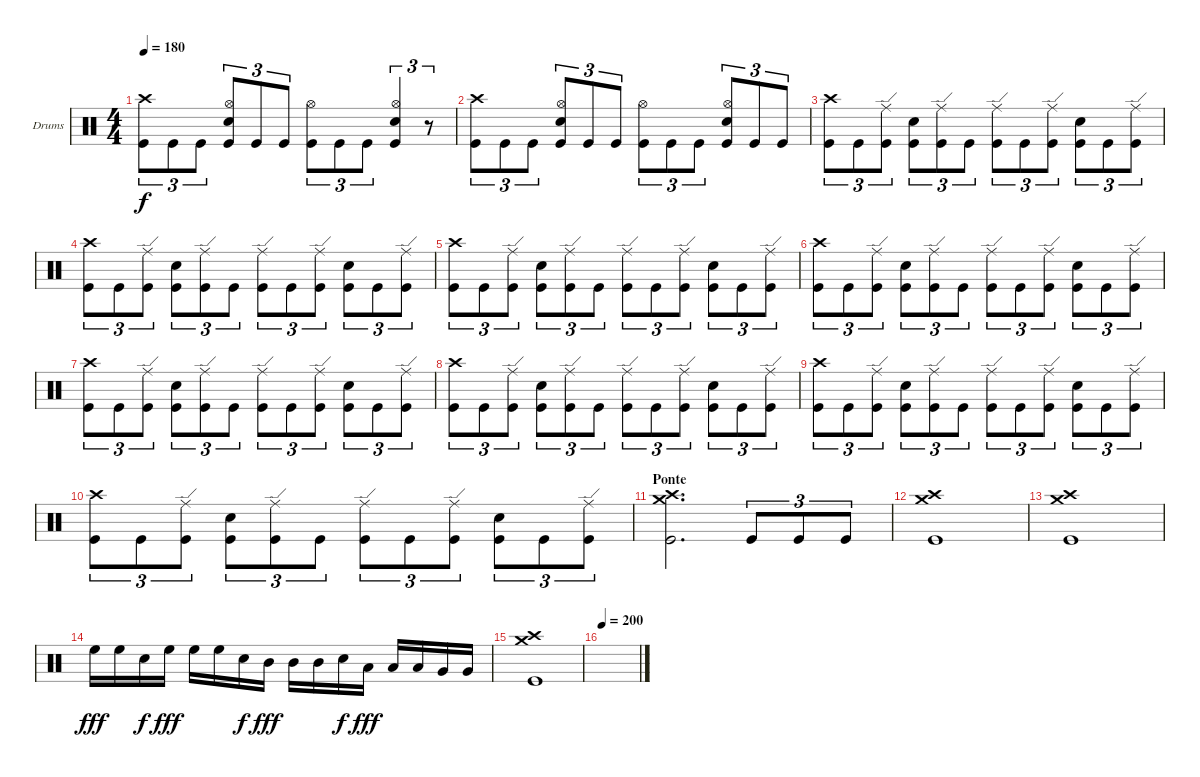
\defaultSystemsLayout 4
\bracketExtendMode groupsimilarinstruments
\firstSystemTrackNameOrientation horizontal
\otherSystemsTrackNameOrientation horizontal
\track ("Drumkit" "Drums") {instrument percussion}
\staff {score}
\articulation defaults
\ts (4 4)
\tempo 180
\clef neutral
\ks c
("Kick (hit)" "Crash high (hit)").8{tu (3 2) dy f} "Kick (hit)".8{tu (3 2)} "Kick (hit)".8{tu (3 2)} ("Hi-Hat (open)" "Snare (hit) 2" "Kick (hit)").8{tu (3 2)} "Kick (hit)".8{tu (3 2)} "Kick (hit)".8{tu (3 2)} ("Hi-Hat (open)" "Kick (hit)").8{tu (3 2)} "Kick (hit)".8{tu (3 2)} "Kick (hit)".8{tu (3 2)} ("Hi-Hat (open)" "Snare (hit) 2" "Kick (hit)").4{tu (3 2)} r.8{tu (3 2)} |
("Kick (hit)" "Crash high (hit)").8{tu (3 2)} "Kick (hit)".8{tu (3 2)} "Kick (hit)".8{tu (3 2)} ("Hi-Hat (open)" "Snare (hit) 2" "Kick (hit)").8{tu (3 2)} "Kick (hit)".8{tu (3 2)} "Kick (hit)".8{tu (3 2)} ("Hi-Hat (open)" "Kick (hit)").8{tu (3 2)} "Kick (hit)".8{tu (3 2)} "Kick (hit)".8{tu (3 2)} ("Hi-Hat (open)" "Snare (hit) 2" "Kick (hit)").8{tu (3 2)} "Kick (hit)".8{tu (3 2)} "Kick (hit)".8{tu (3 2)} |
("Crash high (hit)" "Kick (hit)").8{tu (3 2)} "Kick (hit)".8{tu (3 2)} ("Ride (edge)" "Kick (hit)").8{tu (3 2)} ("Snare (hit) 2" "Kick (hit)").8{tu (3 2)} ("Ride (edge)" "Kick (hit)").8{tu (3 2)} "Kick (hit)".8{tu (3 2)} ("Ride (edge)" "Kick (hit)").8{tu (3 2)} "Kick (hit)".8{tu (3 2)} ("Ride (edge)" "Kick (hit)").8{tu (3 2)} ("Snare (hit) 2" "Kick (hit)").8{tu (3 2)} "Kick (hit)".8{tu (3 2)} ("Ride (edge)" "Kick (hit)").8{tu (3 2)} |
("Crash high (hit)" "Kick (hit)").8{tu (3 2)} "Kick (hit)".8{tu (3 2)} ("Ride (edge)" "Kick (hit)").8{tu (3 2)} ("Snare (hit) 2" "Kick (hit)").8{tu (3 2)} ("Ride (edge)" "Kick (hit)").8{tu (3 2)} "Kick (hit)".8{tu (3 2)} ("Ride (edge)" "Kick (hit)").8{tu (3 2)} "Kick (hit)".8{tu (3 2)} ("Ride (edge)" "Kick (hit)").8{tu (3 2)} ("Snare (hit) 2" "Kick (hit)").8{tu (3 2)} "Kick (hit)".8{tu (3 2)} ("Ride (edge)" "Kick (hit)").8{tu (3 2)} |
("Crash high (hit)" "Kick (hit)").8{tu (3 2)} "Kick (hit)".8{tu (3 2)} ("Ride (edge)" "Kick (hit)").8{tu (3 2)} ("Snare (hit) 2" "Kick (hit)").8{tu (3 2)} ("Ride (edge)" "Kick (hit)").8{tu (3 2)} "Kick (hit)".8{tu (3 2)} ("Ride (edge)" "Kick (hit)").8{tu (3 2)} "Kick (hit)".8{tu (3 2)} ("Ride (edge)" "Kick (hit)").8{tu (3 2)} ("Snare (hit) 2" "Kick (hit)").8{tu (3 2)} "Kick (hit)".8{tu (3 2)} ("Ride (edge)" "Kick (hit)").8{tu (3 2)} |
("Crash high (hit)" "Kick (hit)").8{tu (3 2)} "Kick (hit)".8{tu (3 2)} ("Ride (edge)" "Kick (hit)").8{tu (3 2)} ("Snare (hit) 2" "Kick (hit)").8{tu (3 2)} ("Ride (edge)" "Kick (hit)").8{tu (3 2)} "Kick (hit)".8{tu (3 2)} ("Ride (edge)" "Kick (hit)").8{tu (3 2)} "Kick (hit)".8{tu (3 2)} ("Ride (edge)" "Kick (hit)").8{tu (3 2)} ("Snare (hit) 2" "Kick (hit)").8{tu (3 2)} "Kick (hit)".8{tu (3 2)} ("Ride (edge)" "Kick (hit)").8{tu (3 2)} |
("Crash high (hit)" "Kick (hit)").8{tu (3 2)} "Kick (hit)".8{tu (3 2)} ("Ride (edge)" "Kick (hit)").8{tu (3 2)} ("Snare (hit) 2" "Kick (hit)").8{tu (3 2)} ("Ride (edge)" "Kick (hit)").8{tu (3 2)} "Kick (hit)".8{tu (3 2)} ("Ride (edge)" "Kick (hit)").8{tu (3 2)} "Kick (hit)".8{tu (3 2)} ("Ride (edge)" "Kick (hit)").8{tu (3 2)} ("Snare (hit) 2" "Kick (hit)").8{tu (3 2)} "Kick (hit)".8{tu (3 2)} ("Ride (edge)" "Kick (hit)").8{tu (3 2)} |
("Crash high (hit)" "Kick (hit)").8{tu (3 2)} "Kick (hit)".8{tu (3 2)} ("Ride (edge)" "Kick (hit)").8{tu (3 2)} ("Snare (hit) 2" "Kick (hit)").8{tu (3 2)} ("Ride (edge)" "Kick (hit)").8{tu (3 2)} "Kick (hit)".8{tu (3 2)} ("Ride (edge)" "Kick (hit)").8{tu (3 2)} "Kick (hit)".8{tu (3 2)} ("Ride (edge)" "Kick (hit)").8{tu (3 2)} ("Snare (hit) 2" "Kick (hit)").8{tu (3 2)} "Kick (hit)".8{tu (3 2)} ("Ride (edge)" "Kick (hit)").8{tu (3 2)} |
("Crash high (hit)" "Kick (hit)").8{tu (3 2)} "Kick (hit)".8{tu (3 2)} ("Ride (edge)" "Kick (hit)").8{tu (3 2)} ("Snare (hit) 2" "Kick (hit)").8{tu (3 2)} ("Ride (edge)" "Kick (hit)").8{tu (3 2)} "Kick (hit)".8{tu (3 2)} ("Ride (edge)" "Kick (hit)").8{tu (3 2)} "Kick (hit)".8{tu (3 2)} ("Ride (edge)" "Kick (hit)").8{tu (3 2)} ("Snare (hit) 2" "Kick (hit)").8{tu (3 2)} "Kick (hit)".8{tu (3 2)} ("Ride (edge)" "Kick (hit)").8{tu (3 2)} |
("Crash high (hit)" "Kick (hit)").8{tu (3 2)} "Kick (hit)".8{tu (3 2)} ("Ride (edge)" "Kick (hit)").8{tu (3 2)} ("Snare (hit) 2" "Kick (hit)").8{tu (3 2)} ("Ride (edge)" "Kick (hit)").8{tu (3 2)} "Kick (hit)".8{tu (3 2)} ("Ride (edge)" "Kick (hit)").8{tu (3 2)} "Kick (hit)".8{tu (3 2)} ("Ride (edge)" "Kick (hit)").8{tu (3 2)} ("Snare (hit) 2" "Kick (hit)").8{tu (3 2)} "Kick (hit)".8{tu (3 2)} ("Ride (edge)" "Kick (hit)").8{tu (3 2)} |
\section ("" "Ponte")
("Kick (hit)" "Crash high (hit)" "Crash medium (hit)").2{d} "Kick (hit)".8{tu (3 2)} "Kick (hit)".8{tu (3 2)} "Kick (hit)".8{tu (3 2)} |
("Kick (hit)" "Crash medium (hit)" "Crash high (hit)").1 |
("Kick (hit)" "Crash medium (hit)" "Crash high (hit)").1 |
"High Floor Tom (hit)".16{dy fff} "High Floor Tom (hit)".16 "Snare (hit) 2".16{dy f} "High Floor Tom (hit)".16{dy fff} "High Floor Tom (hit)".16 "High Floor Tom (hit)".16 "Snare (hit) 2".16{dy f} "Mid Tom (hit)".16{dy fff} "Mid Tom (hit)".16 "Mid Tom (hit)".16 "Snare (hit) 2".16{dy f} "Low Tom (hit)".16{dy fff} "Low Tom (hit)".16 "Low Tom (hit)".16 "Very Low Tom (hit)".16 "Very Low Tom (hit)".16 |
("Kick (hit)" "Crash medium (hit)" "Crash high (hit)").1 |
\tempo 200
